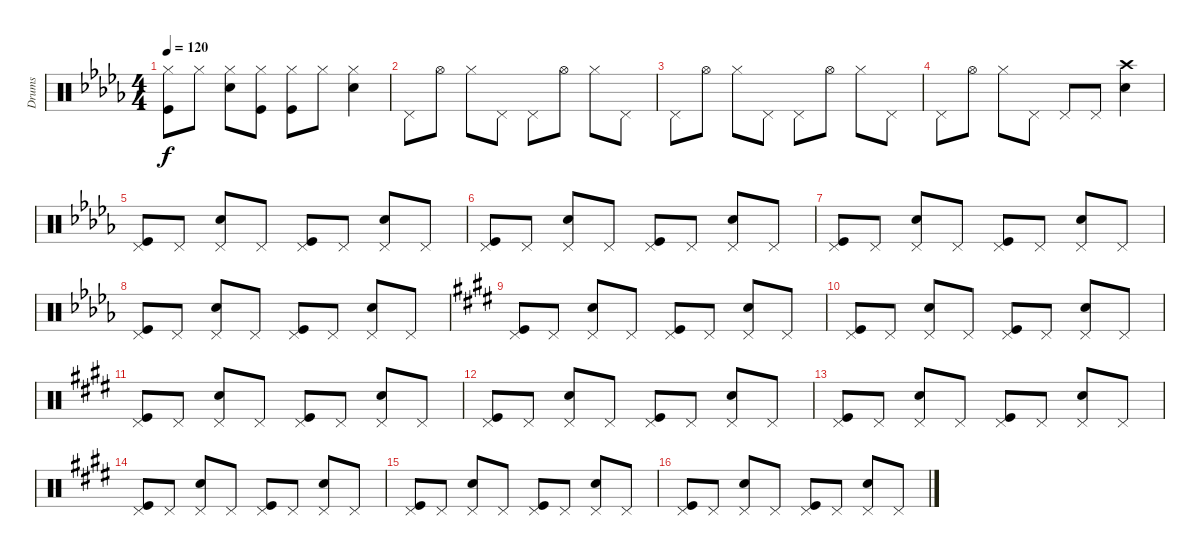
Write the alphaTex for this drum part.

\track ("Drums" "Drums") {instrument percussion}
\staff {score}
\articulation defaults
\ts (4 4)
\tempo 120
\clef neutral
\ks db
("Hi-Hat (closed)" "Kick (hit)").8{dy f} "Hi-Hat (closed)".8 ("Hi-Hat (closed)" "Snare (hit) 2").8 ("Hi-Hat (closed)" "Kick (hit)").8 ("Hi-Hat (closed)" "Kick (hit)").8 "Hi-Hat (closed)".8 ("Hi-Hat (closed)" "Snare (hit) 2").4 |
"Pedal Hi-Hat (hit)".8 "Hi-Hat (open)".8 "Hi-Hat (closed)".8 "Pedal Hi-Hat (hit)".8 "Pedal Hi-Hat (hit)".8 "Hi-Hat (open)".8 "Hi-Hat (closed)".8 "Pedal Hi-Hat (hit)".8 |
"Pedal Hi-Hat (hit)".8 "Hi-Hat (open)".8 "Hi-Hat (closed)".8 "Pedal Hi-Hat (hit)".8 "Pedal Hi-Hat (hit)".8 "Hi-Hat (open)".8 "Hi-Hat (closed)".8 "Pedal Hi-Hat (hit)".8 |
"Pedal Hi-Hat (hit)".8 "Hi-Hat (open)".8 "Hi-Hat (closed)".8 "Pedal Hi-Hat (hit)".8 "Pedal Hi-Hat (hit)".8 "Pedal Hi-Hat (hit)".8 ("Crash high (hit)" "Snare (hit) 2").4 |
("Pedal Hi-Hat (hit)" "Kick (hit)").8 "Pedal Hi-Hat (hit)".8 ("Pedal Hi-Hat (hit)" "Snare (hit) 2").8 "Pedal Hi-Hat (hit)".8 ("Pedal Hi-Hat (hit)" "Kick (hit)").8 "Pedal Hi-Hat (hit)".8 ("Pedal Hi-Hat (hit)" "Snare (hit) 2").8 "Pedal Hi-Hat (hit)".8 |
("Pedal Hi-Hat (hit)" "Kick (hit)").8 "Pedal Hi-Hat (hit)".8 ("Pedal Hi-Hat (hit)" "Snare (hit) 2").8 "Pedal Hi-Hat (hit)".8 ("Pedal Hi-Hat (hit)" "Kick (hit)").8 "Pedal Hi-Hat (hit)".8 ("Pedal Hi-Hat (hit)" "Snare (hit) 2").8 "Pedal Hi-Hat (hit)".8 |
("Pedal Hi-Hat (hit)" "Kick (hit)").8 "Pedal Hi-Hat (hit)".8 ("Pedal Hi-Hat (hit)" "Snare (hit) 2").8 "Pedal Hi-Hat (hit)".8 ("Pedal Hi-Hat (hit)" "Kick (hit)").8 "Pedal Hi-Hat (hit)".8 ("Pedal Hi-Hat (hit)" "Snare (hit) 2").8 "Pedal Hi-Hat (hit)".8 |
("Pedal Hi-Hat (hit)" "Kick (hit)").8 "Pedal Hi-Hat (hit)".8 ("Pedal Hi-Hat (hit)" "Snare (hit) 2").8 "Pedal Hi-Hat (hit)".8 ("Pedal Hi-Hat (hit)" "Kick (hit)").8 "Pedal Hi-Hat (hit)".8 ("Pedal Hi-Hat (hit)" "Snare (hit) 2").8 "Pedal Hi-Hat (hit)".8 |
\ks e
("Pedal Hi-Hat (hit)" "Kick (hit)").8 "Pedal Hi-Hat (hit)".8 ("Pedal Hi-Hat (hit)" "Snare (hit) 2").8 "Pedal Hi-Hat (hit)".8 ("Pedal Hi-Hat (hit)" "Kick (hit)").8 "Pedal Hi-Hat (hit)".8 ("Pedal Hi-Hat (hit)" "Snare (hit) 2").8 "Pedal Hi-Hat (hit)".8 |
("Pedal Hi-Hat (hit)" "Kick (hit)").8 "Pedal Hi-Hat (hit)".8 ("Pedal Hi-Hat (hit)" "Snare (hit) 2").8 "Pedal Hi-Hat (hit)".8 ("Pedal Hi-Hat (hit)" "Kick (hit)").8 "Pedal Hi-Hat (hit)".8 ("Pedal Hi-Hat (hit)" "Snare (hit) 2").8 "Pedal Hi-Hat (hit)".8 |
("Pedal Hi-Hat (hit)" "Kick (hit)").8 "Pedal Hi-Hat (hit)".8 ("Pedal Hi-Hat (hit)" "Snare (hit) 2").8 "Pedal Hi-Hat (hit)".8 ("Pedal Hi-Hat (hit)" "Kick (hit)").8 "Pedal Hi-Hat (hit)".8 ("Pedal Hi-Hat (hit)" "Snare (hit) 2").8 "Pedal Hi-Hat (hit)".8 |
("Pedal Hi-Hat (hit)" "Kick (hit)").8 "Pedal Hi-Hat (hit)".8 ("Pedal Hi-Hat (hit)" "Snare (hit) 2").8 "Pedal Hi-Hat (hit)".8 ("Pedal Hi-Hat (hit)" "Kick (hit)").8 "Pedal Hi-Hat (hit)".8 ("Pedal Hi-Hat (hit)" "Snare (hit) 2").8 "Pedal Hi-Hat (hit)".8 |
("Pedal Hi-Hat (hit)" "Kick (hit)").8 "Pedal Hi-Hat (hit)".8 ("Pedal Hi-Hat (hit)" "Snare (hit) 2").8 "Pedal Hi-Hat (hit)".8 ("Pedal Hi-Hat (hit)" "Kick (hit)").8 "Pedal Hi-Hat (hit)".8 ("Pedal Hi-Hat (hit)" "Snare (hit) 2").8 "Pedal Hi-Hat (hit)".8 |
("Pedal Hi-Hat (hit)" "Kick (hit)").8 "Pedal Hi-Hat (hit)".8 ("Pedal Hi-Hat (hit)" "Snare (hit) 2").8 "Pedal Hi-Hat (hit)".8 ("Pedal Hi-Hat (hit)" "Kick (hit)").8 "Pedal Hi-Hat (hit)".8 ("Pedal Hi-Hat (hit)" "Snare (hit) 2").8 "Pedal Hi-Hat (hit)".8 |
("Pedal Hi-Hat (hit)" "Kick (hit)").8 "Pedal Hi-Hat (hit)".8 ("Pedal Hi-Hat (hit)" "Snare (hit) 2").8 "Pedal Hi-Hat (hit)".8 ("Pedal Hi-Hat (hit)" "Kick (hit)").8 "Pedal Hi-Hat (hit)".8 ("Pedal Hi-Hat (hit)" "Snare (hit) 2").8 "Pedal Hi-Hat (hit)".8 |
("Pedal Hi-Hat (hit)" "Kick (hit)").8 "Pedal Hi-Hat (hit)".8 ("Pedal Hi-Hat (hit)" "Snare (hit) 2").8 "Pedal Hi-Hat (hit)".8 ("Pedal Hi-Hat (hit)" "Kick (hit)").8 "Pedal Hi-Hat (hit)".8 ("Pedal Hi-Hat (hit)" "Snare (hit) 2").8 "Pedal Hi-Hat (hit)".8
